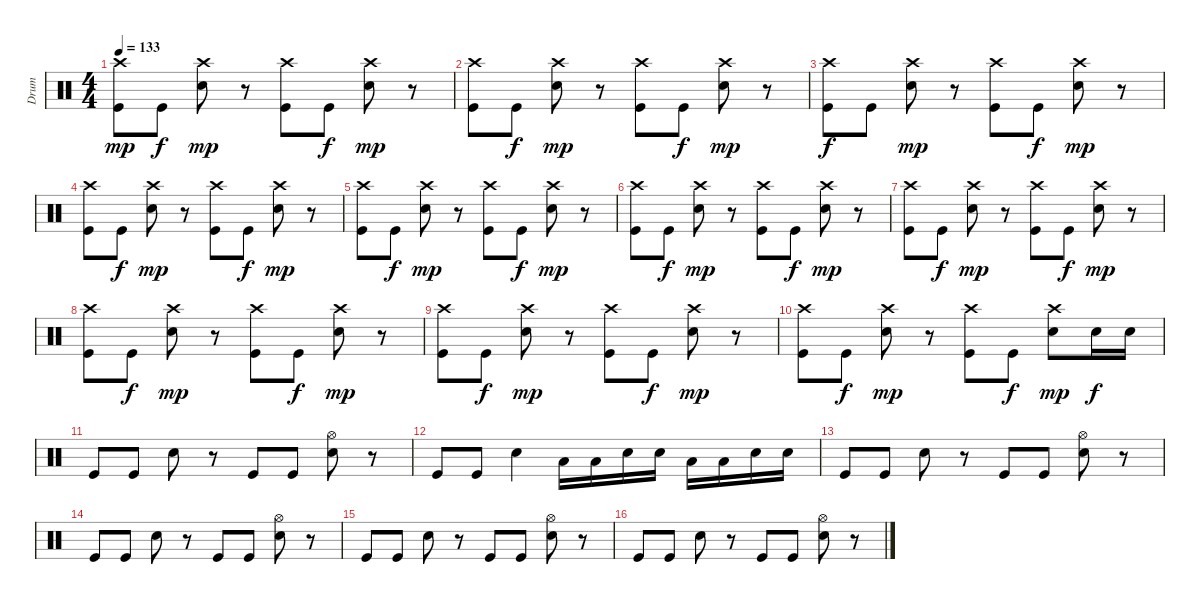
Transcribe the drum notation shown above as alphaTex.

\track ("Drum" "Drum") {instrument percussion}
\staff {score}
\articulation defaults
\ts (4 4)
\tempo 133
\clef neutral
\ks c
("Crash high (hit)" "Kick (hit)").8{dy mp} "Kick (hit)".8{dy f} ("Crash high (hit)" "Snare (hit) 2").8{dy mp} r.8 ("Crash high (hit)" "Kick (hit)").8 "Kick (hit)".8{dy f} ("Crash high (hit)" "Snare (hit) 2").8{dy mp} r.8 |
("Crash high (hit)" "Kick (hit)").8 "Kick (hit)".8{dy f} ("Crash high (hit)" "Snare (hit) 2").8{dy mp} r.8 ("Crash high (hit)" "Kick (hit)").8 "Kick (hit)".8{dy f} ("Crash high (hit)" "Snare (hit) 2").8{dy mp} r.8 |
("Crash high (hit)" "Kick (hit)").8{dy f} "Kick (hit)".8 ("Crash high (hit)" "Snare (hit) 2").8{dy mp} r.8 ("Crash high (hit)" "Kick (hit)").8 "Kick (hit)".8{dy f} ("Crash high (hit)" "Snare (hit) 2").8{dy mp} r.8 |
("Crash high (hit)" "Kick (hit)").8 "Kick (hit)".8{dy f} ("Crash high (hit)" "Snare (hit) 2").8{dy mp} r.8 ("Crash high (hit)" "Kick (hit)").8 "Kick (hit)".8{dy f} ("Crash high (hit)" "Snare (hit) 2").8{dy mp} r.8 |
("Crash high (hit)" "Kick (hit)").8 "Kick (hit)".8{dy f} ("Crash high (hit)" "Snare (hit) 2").8{dy mp} r.8 ("Crash high (hit)" "Kick (hit)").8 "Kick (hit)".8{dy f} ("Crash high (hit)" "Snare (hit) 2").8{dy mp} r.8 |
("Crash high (hit)" "Kick (hit)").8 "Kick (hit)".8{dy f} ("Crash high (hit)" "Snare (hit) 2").8{dy mp} r.8 ("Crash high (hit)" "Kick (hit)").8 "Kick (hit)".8{dy f} ("Crash high (hit)" "Snare (hit) 2").8{dy mp} r.8 |
("Crash high (hit)" "Kick (hit)").8 "Kick (hit)".8{dy f} ("Crash high (hit)" "Snare (hit) 2").8{dy mp} r.8 ("Crash high (hit)" "Kick (hit)").8 "Kick (hit)".8{dy f} ("Crash high (hit)" "Snare (hit) 2").8{dy mp} r.8 |
("Crash high (hit)" "Kick (hit)").8 "Kick (hit)".8{dy f} ("Crash high (hit)" "Snare (hit) 2").8{dy mp} r.8 ("Crash high (hit)" "Kick (hit)").8 "Kick (hit)".8{dy f} ("Crash high (hit)" "Snare (hit) 2").8{dy mp} r.8 |
("Crash high (hit)" "Kick (hit)").8 "Kick (hit)".8{dy f} ("Crash high (hit)" "Snare (hit) 2").8{dy mp} r.8 ("Crash high (hit)" "Kick (hit)").8 "Kick (hit)".8{dy f} ("Crash high (hit)" "Snare (hit) 2").8{dy mp} r.8 |
("Crash high (hit)" "Kick (hit)").8 "Kick (hit)".8{dy f} ("Crash high (hit)" "Snare (hit) 2").8{dy mp} r.8 ("Crash high (hit)" "Kick (hit)").8 "Kick (hit)".8{dy f} ("Crash high (hit)" "Snare (hit) 2").8{dy mp} "Snare (hit) 2".16{dy f} "Snare (hit) 2".16 |
"Kick (hit)".8 "Kick (hit)".8 "Snare (hit) 2".8 r.8 "Kick (hit)".8 "Kick (hit)".8 ("Hi-Hat (open)" "Snare (hit) 2").8 r.8 |
"Kick (hit)".8 "Kick (hit)".8 "Snare (hit) 2".4 "Low Floor Tom (hit)".16 "Low Floor Tom (hit)".16 "Snare (hit) 2".16 "Snare (hit) 2".16 "Low Floor Tom (hit)".16 "Low Floor Tom (hit)".16 "Snare (hit) 2".16 "Snare (hit) 2".16 |
"Kick (hit)".8 "Kick (hit)".8 "Snare (hit) 2".8 r.8 "Kick (hit)".8 "Kick (hit)".8 ("Hi-Hat (open)" "Snare (hit) 2").8 r.8 |
"Kick (hit)".8 "Kick (hit)".8 "Snare (hit) 2".8 r.8 "Kick (hit)".8 "Kick (hit)".8 ("Hi-Hat (open)" "Snare (hit) 2").8 r.8 |
"Kick (hit)".8 "Kick (hit)".8 "Snare (hit) 2".8 r.8 "Kick (hit)".8 "Kick (hit)".8 ("Hi-Hat (open)" "Snare (hit) 2").8 r.8 |
"Kick (hit)".8 "Kick (hit)".8 "Snare (hit) 2".8 r.8 "Kick (hit)".8 "Kick (hit)".8 ("Hi-Hat (open)" "Snare (hit) 2").8 r.8
